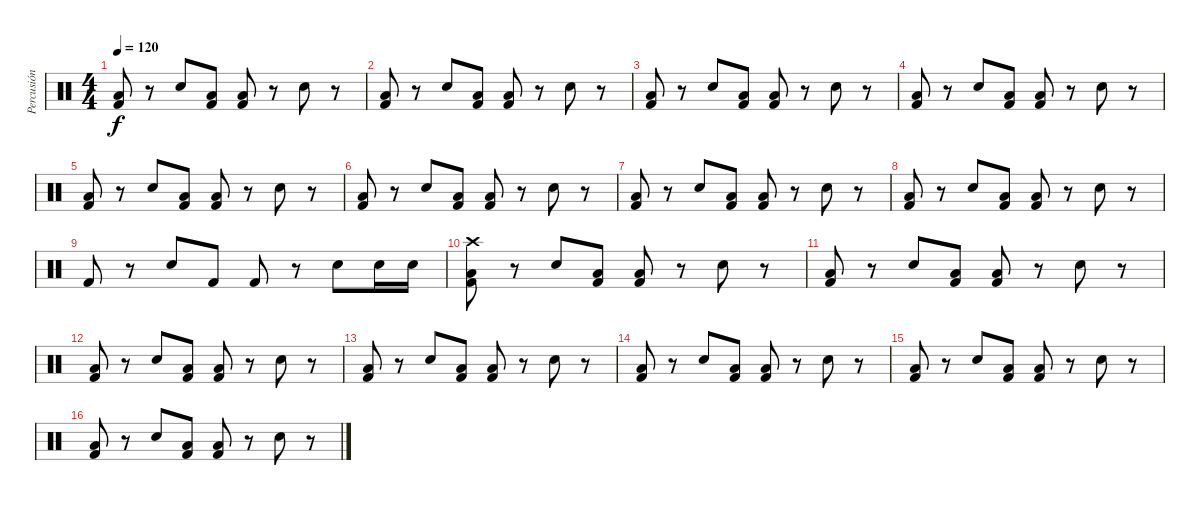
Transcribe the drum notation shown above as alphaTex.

\track ("Percusión" "Percusión") {instrument percussion}
\staff {score}
\articulation defaults
\ts (4 4)
\tempo 120
\clef neutral
\ks c
("Kick (hit) 2" "Low Tom (hit)").8{dy f} r.8 "Snare (hit) 2".8 ("Kick (hit) 2" "Low Tom (hit)").8 ("Kick (hit) 2" "Low Tom (hit)").8 r.8 "Snare (hit) 2".8 r.8 |
("Kick (hit) 2" "Low Tom (hit)").8 r.8 "Snare (hit) 2".8 ("Kick (hit) 2" "Low Tom (hit)").8 ("Kick (hit) 2" "Low Tom (hit)").8 r.8 "Snare (hit) 2".8 r.8 |
("Kick (hit) 2" "Low Tom (hit)").8 r.8 "Snare (hit) 2".8 ("Kick (hit) 2" "Low Tom (hit)").8 ("Kick (hit) 2" "Low Tom (hit)").8 r.8 "Snare (hit) 2".8 r.8 |
("Kick (hit) 2" "Low Tom (hit)").8 r.8 "Snare (hit) 2".8 ("Kick (hit) 2" "Low Tom (hit)").8 ("Kick (hit) 2" "Low Tom (hit)").8 r.8 "Snare (hit) 2".8 r.8 |
("Kick (hit) 2" "Low Tom (hit)").8 r.8 "Snare (hit) 2".8 ("Kick (hit) 2" "Low Tom (hit)").8 ("Kick (hit) 2" "Low Tom (hit)").8 r.8 "Snare (hit) 2".8 r.8 |
("Kick (hit) 2" "Low Tom (hit)").8 r.8 "Snare (hit) 2".8 ("Kick (hit) 2" "Low Tom (hit)").8 ("Kick (hit) 2" "Low Tom (hit)").8 r.8 "Snare (hit) 2".8 r.8 |
("Kick (hit) 2" "Low Tom (hit)").8 r.8 "Snare (hit) 2".8 ("Kick (hit) 2" "Low Tom (hit)").8 ("Kick (hit) 2" "Low Tom (hit)").8 r.8 "Snare (hit) 2".8 r.8 |
("Kick (hit) 2" "Low Tom (hit)").8 r.8 "Snare (hit) 2".8 ("Kick (hit) 2" "Low Tom (hit)").8 ("Kick (hit) 2" "Low Tom (hit)").8 r.8 "Snare (hit) 2".8 r.8 |
"Kick (hit) 2".8 r.8 "Snare (hit) 2".8 "Kick (hit) 2".8 "Kick (hit) 2".8 r.8 "Snare (hit) 2".8 "Snare (hit) 2".16 "Snare (hit) 2".16 |
("Crash high (hit)" "Kick (hit) 2" "Low Tom (hit)").8{volume 16} r.8 "Snare (hit) 2".8 ("Kick (hit) 2" "Low Tom (hit)").8 ("Kick (hit) 2" "Low Tom (hit)").8 r.8 "Snare (hit) 2".8 r.8 |
("Kick (hit) 2" "Low Tom (hit)").8 r.8 "Snare (hit) 2".8 ("Kick (hit) 2" "Low Tom (hit)").8 ("Kick (hit) 2" "Low Tom (hit)").8 r.8 "Snare (hit) 2".8 r.8 |
("Kick (hit) 2" "Low Tom (hit)").8 r.8 "Snare (hit) 2".8 ("Kick (hit) 2" "Low Tom (hit)").8 ("Kick (hit) 2" "Low Tom (hit)").8 r.8 "Snare (hit) 2".8 r.8 |
("Kick (hit) 2" "Low Tom (hit)").8 r.8 "Snare (hit) 2".8 ("Kick (hit) 2" "Low Tom (hit)").8 ("Kick (hit) 2" "Low Tom (hit)").8 r.8 "Snare (hit) 2".8 r.8 |
("Kick (hit) 2" "Low Tom (hit)").8 r.8 "Snare (hit) 2".8 ("Kick (hit) 2" "Low Tom (hit)").8 ("Kick (hit) 2" "Low Tom (hit)").8 r.8 "Snare (hit) 2".8 r.8 |
("Kick (hit) 2" "Low Tom (hit)").8 r.8 "Snare (hit) 2".8 ("Kick (hit) 2" "Low Tom (hit)").8 ("Kick (hit) 2" "Low Tom (hit)").8 r.8 "Snare (hit) 2".8 r.8 |
("Kick (hit) 2" "Low Tom (hit)").8 r.8 "Snare (hit) 2".8 ("Kick (hit) 2" "Low Tom (hit)").8 ("Kick (hit) 2" "Low Tom (hit)").8 r.8 "Snare (hit) 2".8 r.8
